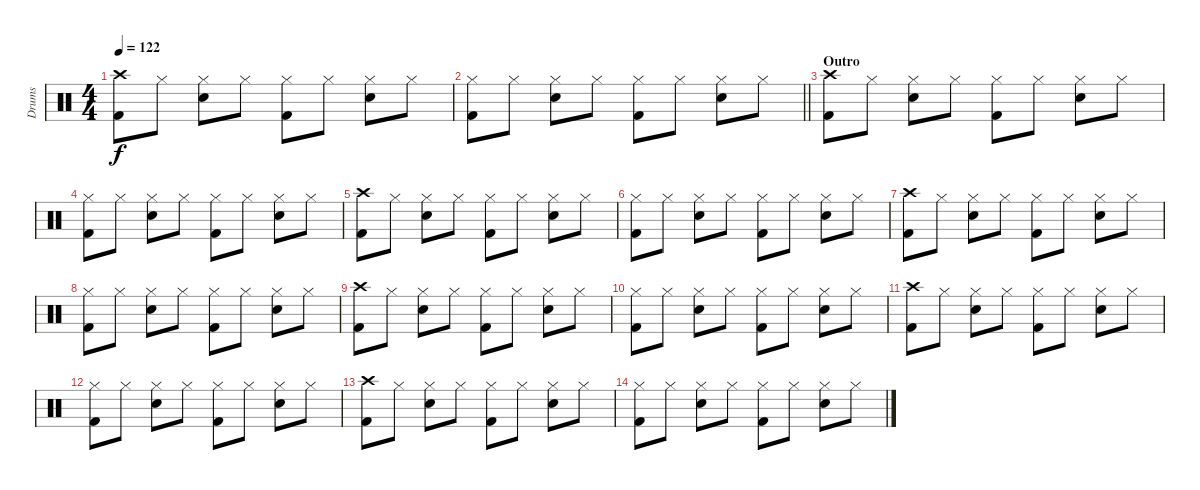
\track ("Drums" "Drums") {instrument percussion}
\staff {score}
\articulation defaults
\ts (4 4)
\tempo 122
\clef neutral
\ks c
("Crash high (hit)" "Kick (hit) 2").8{dy f} "Hi-Hat (closed)".8 ("Hi-Hat (closed)" "Snare (hit) 2").8 "Hi-Hat (closed)".8 ("Hi-Hat (closed)" "Kick (hit) 2").8 "Hi-Hat (closed)".8 ("Hi-Hat (closed)" "Snare (hit) 2").8 "Hi-Hat (closed)".8 |
\barLineRight lightlight
("Hi-Hat (closed)" "Kick (hit) 2").8 "Hi-Hat (closed)".8 ("Hi-Hat (closed)" "Snare (hit) 2").8 "Hi-Hat (closed)".8 ("Hi-Hat (closed)" "Kick (hit) 2").8 "Hi-Hat (closed)".8 ("Hi-Hat (closed)" "Snare (hit) 2").8 "Hi-Hat (closed)".8 |
\section ("" "Outro")
("Crash high (hit)" "Kick (hit) 2").8 "Hi-Hat (closed)".8 ("Hi-Hat (closed)" "Snare (hit) 2").8 "Hi-Hat (closed)".8 ("Hi-Hat (closed)" "Kick (hit) 2").8 "Hi-Hat (closed)".8 ("Hi-Hat (closed)" "Snare (hit) 2").8 "Hi-Hat (closed)".8 |
("Hi-Hat (closed)" "Kick (hit) 2").8 "Hi-Hat (closed)".8 ("Hi-Hat (closed)" "Snare (hit) 2").8 "Hi-Hat (closed)".8 ("Hi-Hat (closed)" "Kick (hit) 2").8 "Hi-Hat (closed)".8 ("Hi-Hat (closed)" "Snare (hit) 2").8 "Hi-Hat (closed)".8 |
("Crash high (hit)" "Kick (hit) 2").8 "Hi-Hat (closed)".8 ("Hi-Hat (closed)" "Snare (hit) 2").8 "Hi-Hat (closed)".8 ("Hi-Hat (closed)" "Kick (hit) 2").8 "Hi-Hat (closed)".8 ("Hi-Hat (closed)" "Snare (hit) 2").8 "Hi-Hat (closed)".8 |
("Hi-Hat (closed)" "Kick (hit) 2").8 "Hi-Hat (closed)".8 ("Hi-Hat (closed)" "Snare (hit) 2").8 "Hi-Hat (closed)".8 ("Hi-Hat (closed)" "Kick (hit) 2").8 "Hi-Hat (closed)".8 ("Hi-Hat (closed)" "Snare (hit) 2").8 "Hi-Hat (closed)".8 |
("Crash high (hit)" "Kick (hit) 2").8 "Hi-Hat (closed)".8 ("Hi-Hat (closed)" "Snare (hit) 2").8 "Hi-Hat (closed)".8 ("Hi-Hat (closed)" "Kick (hit) 2").8 "Hi-Hat (closed)".8 ("Hi-Hat (closed)" "Snare (hit) 2").8 "Hi-Hat (closed)".8 |
("Hi-Hat (closed)" "Kick (hit) 2").8 "Hi-Hat (closed)".8 ("Hi-Hat (closed)" "Snare (hit) 2").8 "Hi-Hat (closed)".8 ("Hi-Hat (closed)" "Kick (hit) 2").8 "Hi-Hat (closed)".8 ("Hi-Hat (closed)" "Snare (hit) 2").8 "Hi-Hat (closed)".8 |
("Crash high (hit)" "Kick (hit) 2").8 "Hi-Hat (closed)".8 ("Hi-Hat (closed)" "Snare (hit) 2").8 "Hi-Hat (closed)".8 ("Hi-Hat (closed)" "Kick (hit) 2").8 "Hi-Hat (closed)".8 ("Hi-Hat (closed)" "Snare (hit) 2").8 "Hi-Hat (closed)".8 |
("Hi-Hat (closed)" "Kick (hit) 2").8 "Hi-Hat (closed)".8 ("Hi-Hat (closed)" "Snare (hit) 2").8 "Hi-Hat (closed)".8 ("Hi-Hat (closed)" "Kick (hit) 2").8 "Hi-Hat (closed)".8 ("Hi-Hat (closed)" "Snare (hit) 2").8 "Hi-Hat (closed)".8 |
("Crash high (hit)" "Kick (hit) 2").8 "Hi-Hat (closed)".8 ("Hi-Hat (closed)" "Snare (hit) 2").8 "Hi-Hat (closed)".8 ("Hi-Hat (closed)" "Kick (hit) 2").8 "Hi-Hat (closed)".8 ("Hi-Hat (closed)" "Snare (hit) 2").8 "Hi-Hat (closed)".8 |
("Hi-Hat (closed)" "Kick (hit) 2").8 "Hi-Hat (closed)".8 ("Hi-Hat (closed)" "Snare (hit) 2").8 "Hi-Hat (closed)".8 ("Hi-Hat (closed)" "Kick (hit) 2").8 "Hi-Hat (closed)".8 ("Hi-Hat (closed)" "Snare (hit) 2").8 "Hi-Hat (closed)".8 |
("Crash high (hit)" "Kick (hit) 2").8 "Hi-Hat (closed)".8 ("Hi-Hat (closed)" "Snare (hit) 2").8 "Hi-Hat (closed)".8 ("Hi-Hat (closed)" "Kick (hit) 2").8 "Hi-Hat (closed)".8 ("Hi-Hat (closed)" "Snare (hit) 2").8 "Hi-Hat (closed)".8 |
("Hi-Hat (closed)" "Kick (hit) 2").8 "Hi-Hat (closed)".8 ("Hi-Hat (closed)" "Snare (hit) 2").8 "Hi-Hat (closed)".8 ("Hi-Hat (closed)" "Kick (hit) 2").8 "Hi-Hat (closed)".8 ("Hi-Hat (closed)" "Snare (hit) 2").8 "Hi-Hat (closed)".8
